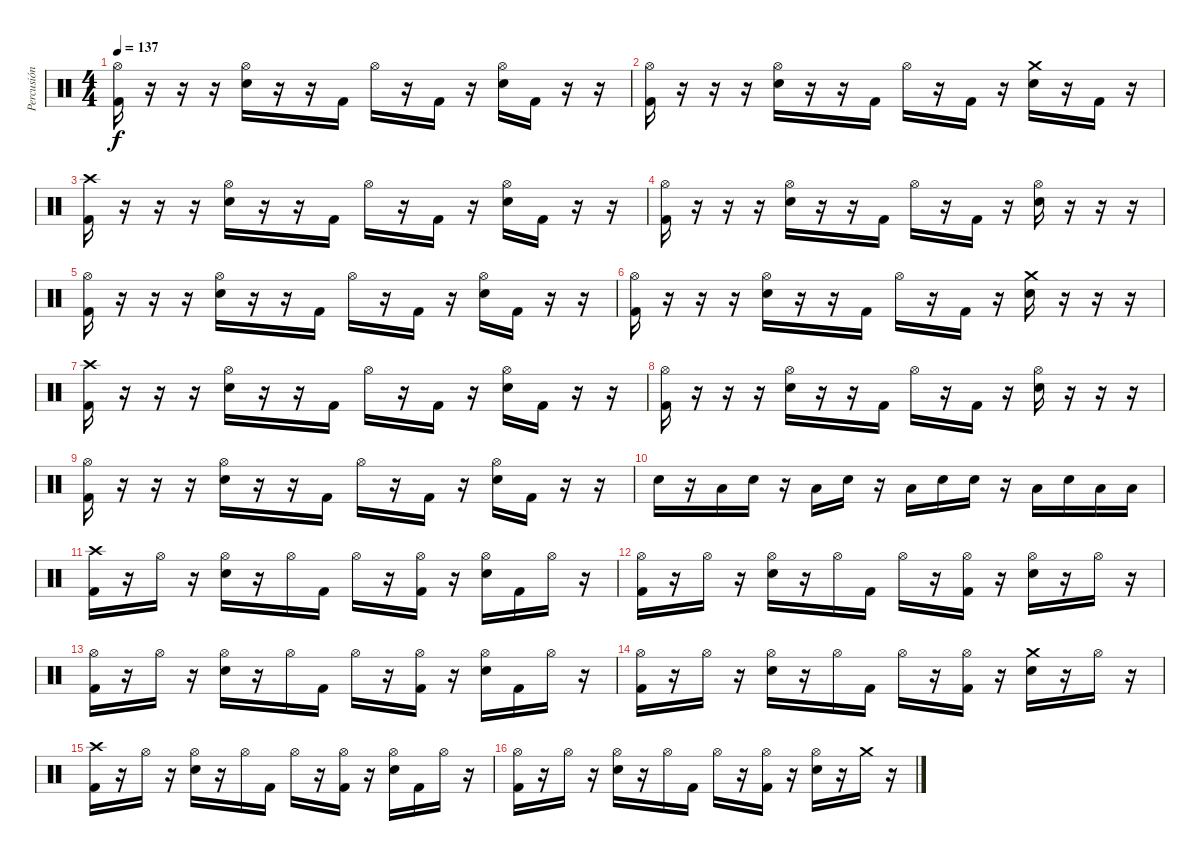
\track ("Percusión" "Percusión") {instrument percussion}
\staff {score}
\articulation defaults
\ts (4 4)
\tempo 137
\clef neutral
\ks c
("Hi-Hat (open)" "Kick (hit) 2").16{dy f} r.16 r.16 r.16 ("Hi-Hat (open)" "Electric Snare (hit)").16 r.16 r.16 "Kick (hit) 2".16 "Hi-Hat (open)".16 r.16 "Kick (hit) 2".16 r.16 ("Hi-Hat (open)" "Electric Snare (hit)").16 "Kick (hit) 2".16 r.16 r.16 |
("Hi-Hat (open)" "Kick (hit) 2").16 r.16 r.16 r.16 ("Hi-Hat (open)" "Electric Snare (hit)").16 r.16 r.16 "Kick (hit) 2".16 "Hi-Hat (open)".16 r.16 "Kick (hit) 2".16 r.16 ("Crash medium (hit)" "Electric Snare (hit)").16 r.16 "Kick (hit) 2".16 r.16 |
("Crash high (hit)" "Kick (hit) 2").16 r.16 r.16 r.16 ("Hi-Hat (open)" "Electric Snare (hit)").16 r.16 r.16 "Kick (hit) 2".16 "Hi-Hat (open)".16 r.16 "Kick (hit) 2".16 r.16 ("Hi-Hat (open)" "Electric Snare (hit)").16 "Kick (hit) 2".16 r.16 r.16 |
("Hi-Hat (open)" "Kick (hit) 2").16 r.16 r.16 r.16 ("Hi-Hat (open)" "Electric Snare (hit)").16 r.16 r.16 "Kick (hit) 2".16 "Hi-Hat (open)".16 r.16 "Kick (hit) 2".16 r.16 ("Hi-Hat (open)" "Electric Snare (hit)").16 r.16 r.16 r.16 |
("Hi-Hat (open)" "Kick (hit) 2").16 r.16 r.16 r.16 ("Hi-Hat (open)" "Electric Snare (hit)").16 r.16 r.16 "Kick (hit) 2".16 "Hi-Hat (open)".16 r.16 "Kick (hit) 2".16 r.16 ("Hi-Hat (open)" "Electric Snare (hit)").16 "Kick (hit) 2".16 r.16 r.16 |
("Hi-Hat (open)" "Kick (hit) 2").16 r.16 r.16 r.16 ("Hi-Hat (open)" "Electric Snare (hit)").16 r.16 r.16 "Kick (hit) 2".16 "Hi-Hat (open)".16 r.16 "Kick (hit) 2".16 r.16 ("Crash medium (hit)" "Electric Snare (hit)").16 r.16 r.16 r.16 |
("Crash high (hit)" "Kick (hit) 2").16 r.16 r.16 r.16 ("Hi-Hat (open)" "Electric Snare (hit)").16 r.16 r.16 "Kick (hit) 2".16 "Hi-Hat (open)".16 r.16 "Kick (hit) 2".16 r.16 ("Hi-Hat (open)" "Electric Snare (hit)").16 "Kick (hit) 2".16 r.16 r.16 |
("Hi-Hat (open)" "Kick (hit) 2").16 r.16 r.16 r.16 ("Hi-Hat (open)" "Electric Snare (hit)").16 r.16 r.16 "Kick (hit) 2".16 "Hi-Hat (open)".16 r.16 "Kick (hit) 2".16 r.16 ("Hi-Hat (open)" "Electric Snare (hit)").16 r.16 r.16 r.16 |
("Hi-Hat (open)" "Kick (hit) 2").16 r.16 r.16 r.16 ("Hi-Hat (open)" "Electric Snare (hit)").16 r.16 r.16 "Kick (hit) 2".16 "Hi-Hat (open)".16 r.16 "Kick (hit) 2".16 r.16 ("Hi-Hat (open)" "Electric Snare (hit)").16 "Kick (hit) 2".16 r.16 r.16 |
"Electric Snare (hit)".16 r.16 "Low Tom (hit)".16 "Electric Snare (hit)".16 r.16 "Low Tom (hit)".16 "Electric Snare (hit)".16 r.16 "Low Tom (hit)".16 "Electric Snare (hit)".16 "Electric Snare (hit)".16 r.16 "Low Tom (hit)".16 "Electric Snare (hit)".16 "Low Tom (hit)".16 "Low Tom (hit)".16 |
("Crash high (hit)" "Kick (hit) 2").16 r.16 "Hi-Hat (open)".16 r.16 ("Hi-Hat (open)" "Electric Snare (hit)").16 r.16 "Hi-Hat (open)".16 "Kick (hit) 2".16 "Hi-Hat (open)".16 r.16 ("Hi-Hat (open)" "Kick (hit) 2").16 r.16 ("Hi-Hat (open)" "Electric Snare (hit)").16 "Kick (hit) 2".16 "Hi-Hat (open)".16 r.16 |
("Hi-Hat (open)" "Kick (hit) 2").16 r.16 "Hi-Hat (open)".16 r.16 ("Hi-Hat (open)" "Electric Snare (hit)").16 r.16 "Hi-Hat (open)".16 "Kick (hit) 2".16 "Hi-Hat (open)".16 r.16 ("Hi-Hat (open)" "Kick (hit) 2").16 r.16 ("Hi-Hat (open)" "Electric Snare (hit)").16 r.16 "Hi-Hat (open)".16 r.16 |
("Hi-Hat (open)" "Kick (hit) 2").16 r.16 "Hi-Hat (open)".16 r.16 ("Hi-Hat (open)" "Electric Snare (hit)").16 r.16 "Hi-Hat (open)".16 "Kick (hit) 2".16 "Hi-Hat (open)".16 r.16 ("Hi-Hat (open)" "Kick (hit) 2").16 r.16 ("Hi-Hat (open)" "Electric Snare (hit)").16 "Kick (hit) 2".16 "Hi-Hat (open)".16 r.16 |
("Hi-Hat (open)" "Kick (hit) 2").16 r.16 "Hi-Hat (open)".16 r.16 ("Hi-Hat (open)" "Electric Snare (hit)").16 r.16 "Hi-Hat (open)".16 "Kick (hit) 2".16 "Hi-Hat (open)".16 r.16 ("Hi-Hat (open)" "Kick (hit) 2").16 r.16 ("Crash medium (hit)" "Electric Snare (hit)").16 r.16 "Hi-Hat (open)".16 r.16 |
("Crash high (hit)" "Kick (hit) 2").16 r.16 "Hi-Hat (open)".16 r.16 ("Hi-Hat (open)" "Electric Snare (hit)").16 r.16 "Hi-Hat (open)".16 "Kick (hit) 2".16 "Hi-Hat (open)".16 r.16 ("Hi-Hat (open)" "Kick (hit) 2").16 r.16 ("Hi-Hat (open)" "Electric Snare (hit)").16 "Kick (hit) 2".16 "Hi-Hat (open)".16 r.16 |
("Hi-Hat (open)" "Kick (hit) 2").16 r.16 "Hi-Hat (open)".16 r.16 ("Hi-Hat (open)" "Electric Snare (hit)").16 r.16 "Hi-Hat (open)".16 "Kick (hit) 2".16 "Hi-Hat (open)".16 r.16 ("Hi-Hat (open)" "Kick (hit) 2").16 r.16 ("Hi-Hat (open)" "Electric Snare (hit)").16 r.16 "Crash medium (hit)".16 r.16
